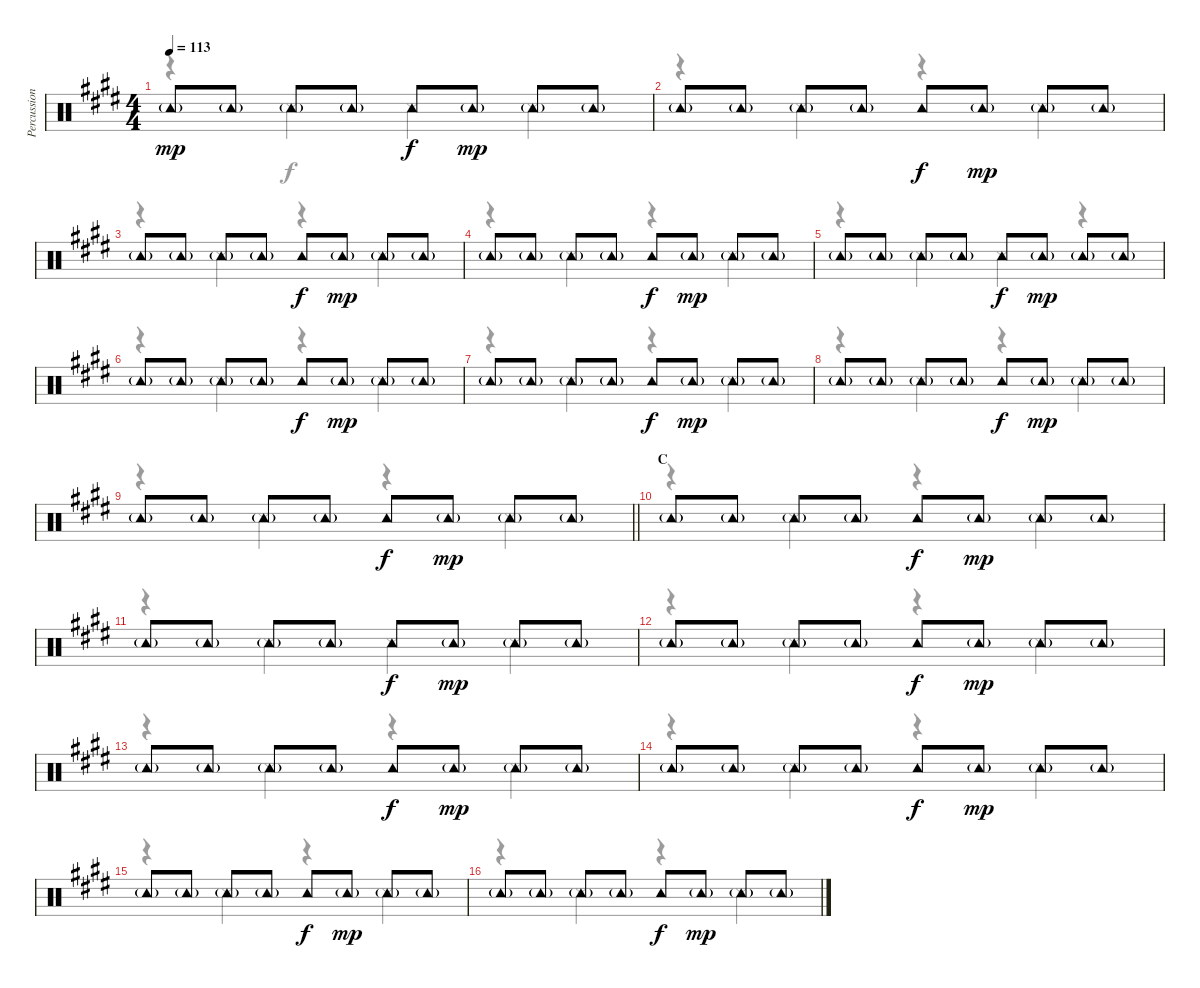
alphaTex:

\track ("Percussion" "Percussion") {instrument percussion}
\staff {score}
\articulation defaults
\voice
\ts (4 4)
\tempo 113
\clef neutral
\ks e "Tambourine (hit)"{g}.8{dy mp} "Tambourine (hit)"{g}.8 "Tambourine (hit)"{g}.8 "Tambourine (hit)"{g}.8 "Tambourine (hit)".8{dy f} "Tambourine (hit)"{g}.8{dy mp} "Tambourine (hit)"{g}.8 "Tambourine (hit)"{g}.8
|
"Tambourine (hit)"{g}.8 "Tambourine (hit)"{g}.8 "Tambourine (hit)"{g}.8 "Tambourine (hit)"{g}.8 "Tambourine (hit)".8{dy f} "Tambourine (hit)"{g}.8{dy mp} "Tambourine (hit)"{g}.8 "Tambourine (hit)"{g}.8 |
"Tambourine (hit)"{g}.8 "Tambourine (hit)"{g}.8 "Tambourine (hit)"{g}.8 "Tambourine (hit)"{g}.8 "Tambourine (hit)".8{dy f} "Tambourine (hit)"{g}.8{dy mp} "Tambourine (hit)"{g}.8 "Tambourine (hit)"{g}.8 |
"Tambourine (hit)"{g}.8 "Tambourine (hit)"{g}.8 "Tambourine (hit)"{g}.8 "Tambourine (hit)"{g}.8 "Tambourine (hit)".8{dy f} "Tambourine (hit)"{g}.8{dy mp} "Tambourine (hit)"{g}.8 "Tambourine (hit)"{g}.8 |
"Tambourine (hit)"{g}.8 "Tambourine (hit)"{g}.8 "Tambourine (hit)"{g}.8 "Tambourine (hit)"{g}.8 "Tambourine (hit)".8{dy f} "Tambourine (hit)"{g}.8{dy mp} "Tambourine (hit)"{g}.8 "Tambourine (hit)"{g}.8 |
"Tambourine (hit)"{g}.8 "Tambourine (hit)"{g}.8 "Tambourine (hit)"{g}.8 "Tambourine (hit)"{g}.8 "Tambourine (hit)".8{dy f} "Tambourine (hit)"{g}.8{dy mp} "Tambourine (hit)"{g}.8 "Tambourine (hit)"{g}.8 |
"Tambourine (hit)"{g}.8 "Tambourine (hit)"{g}.8 "Tambourine (hit)"{g}.8 "Tambourine (hit)"{g}.8 "Tambourine (hit)".8{dy f} "Tambourine (hit)"{g}.8{dy mp} "Tambourine (hit)"{g}.8 "Tambourine (hit)"{g}.8 |
"Tambourine (hit)"{g}.8 "Tambourine (hit)"{g}.8 "Tambourine (hit)"{g}.8 "Tambourine (hit)"{g}.8 "Tambourine (hit)".8{dy f} "Tambourine (hit)"{g}.8{dy mp} "Tambourine (hit)"{g}.8 "Tambourine (hit)"{g}.8 |
\barLineRight lightlight "Tambourine (hit)"{g}.8 "Tambourine (hit)"{g}.8 "Tambourine (hit)"{g}.8 "Tambourine (hit)"{g}.8 "Tambourine (hit)".8{dy f} "Tambourine (hit)"{g}.8{dy mp} "Tambourine (hit)"{g}.8 "Tambourine (hit)"{g}.8
|
\section ("" "C")
"Tambourine (hit)"{g}.8 "Tambourine (hit)"{g}.8 "Tambourine (hit)"{g}.8 "Tambourine (hit)"{g}.8 "Tambourine (hit)".8{dy f} "Tambourine (hit)"{g}.8{dy mp} "Tambourine (hit)"{g}.8 "Tambourine (hit)"{g}.8 |
"Tambourine (hit)"{g}.8 "Tambourine (hit)"{g}.8 "Tambourine (hit)"{g}.8 "Tambourine (hit)"{g}.8 "Tambourine (hit)".8{dy f} "Tambourine (hit)"{g}.8{dy mp} "Tambourine (hit)"{g}.8 "Tambourine (hit)"{g}.8 |
"Tambourine (hit)"{g}.8 "Tambourine (hit)"{g}.8 "Tambourine (hit)"{g}.8 "Tambourine (hit)"{g}.8 "Tambourine (hit)".8{dy f} "Tambourine (hit)"{g}.8{dy mp} "Tambourine (hit)"{g}.8 "Tambourine (hit)"{g}.8 |
"Tambourine (hit)"{g}.8 "Tambourine (hit)"{g}.8 "Tambourine (hit)"{g}.8 "Tambourine (hit)"{g}.8 "Tambourine (hit)".8{dy f} "Tambourine (hit)"{g}.8{dy mp} "Tambourine (hit)"{g}.8 "Tambourine (hit)"{g}.8 |
"Tambourine (hit)"{g}.8 "Tambourine (hit)"{g}.8 "Tambourine (hit)"{g}.8 "Tambourine (hit)"{g}.8 "Tambourine (hit)".8{dy f} "Tambourine (hit)"{g}.8{dy mp} "Tambourine (hit)"{g}.8 "Tambourine (hit)"{g}.8 |
"Tambourine (hit)"{g}.8 "Tambourine (hit)"{g}.8 "Tambourine (hit)"{g}.8 "Tambourine (hit)"{g}.8 "Tambourine (hit)".8{dy f} "Tambourine (hit)"{g}.8{dy mp} "Tambourine (hit)"{g}.8 "Tambourine (hit)"{g}.8 |
"Tambourine (hit)"{g}.8 "Tambourine (hit)"{g}.8 "Tambourine (hit)"{g}.8 "Tambourine (hit)"{g}.8 "Tambourine (hit)".8{dy f} "Tambourine (hit)"{g}.8{dy mp} "Tambourine (hit)"{g}.8 "Tambourine (hit)"{g}.8
\voice
\clef neutral
\ottava regular
\simile none
\ks e
r.4{dy f} "Snare (side stick) 3".4 "Snare (side stick) 3".4 "Snare (side stick) 3".4 |
r.4 "Snare (side stick) 3".4 r.4 "Snare (side stick) 3".4 |
r.4 "Snare (side stick) 3".4 r.4 "Snare (side stick) 3".4 |
r.4 "Snare (side stick) 3".4 r.4 "Snare (side stick) 3".4 |
r.4 "Snare (side stick) 3".4 "Snare (side stick) 3".4 r.4 |
r.4 "Snare (side stick) 3".4 r.4 "Snare (side stick) 3".4 |
r.4 "Snare (side stick) 3".4 r.4 "Snare (side stick) 3".4 |
r.4 "Snare (side stick) 3".4 r.4 "Snare (side stick) 3".4 |
\barLineRight lightlight
r.4 "Snare (side stick) 3".4 r.4 "Snare (side stick) 3".4 |
r.4 "Snare (side stick) 3".4 r.4 "Snare (side stick) 3".4 |
r.4 "Snare (side stick) 3".4 "Snare (side stick) 3".4 "Snare (side stick) 3".4 |
r.4 "Snare (side stick) 3".4 r.4 "Snare (side stick) 3".4 |
r.4 "Snare (side stick) 3".4 r.4 "Snare (side stick) 3".4 |
r.4 "Snare (side stick) 3".4 r.4 "Snare (side stick) 3".4 |
r.4 "Snare (side stick) 3".4 r.4 "Snare (side stick) 3".4 |
r.4 "Snare (side stick) 3".4 r.4 "Snare (side stick) 3".4
